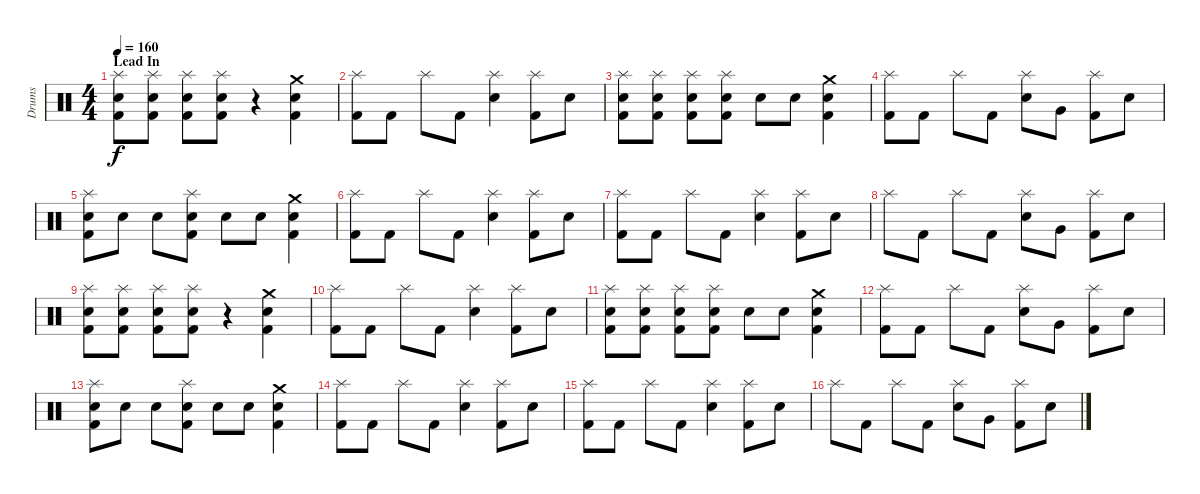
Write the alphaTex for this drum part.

\track ("Drums" "Drums") {instrument percussion}
\staff {score}
\articulation defaults
\ts (4 4)
\section ("" "Lead In")
\tempo 160
\clef neutral
\ks c
("Splash (hit)" "Electric Snare (hit)" "Kick (hit) 2").8{dy f} ("Splash (hit)" "Electric Snare (hit)" "Kick (hit) 2").8 ("Splash (hit)" "Electric Snare (hit)" "Kick (hit) 2").8 ("Splash (hit)" "Electric Snare (hit)" "Kick (hit) 2").8 r.4 ("Crash medium (hit)" "Electric Snare (hit)" "Kick (hit) 2").4 |
("Splash (hit)" "Kick (hit) 2").8 "Kick (hit) 2".8 "Splash (hit)".8 "Kick (hit) 2".8 ("Splash (hit)" "Electric Snare (hit)").4 ("Splash (hit)" "Kick (hit) 2").8 "Electric Snare (hit)".8 |
("Splash (hit)" "Electric Snare (hit)" "Kick (hit) 2").8 ("Splash (hit)" "Electric Snare (hit)" "Kick (hit) 2").8 ("Splash (hit)" "Electric Snare (hit)" "Kick (hit) 2").8 ("Splash (hit)" "Electric Snare (hit)" "Kick (hit) 2").8 "Electric Snare (hit)".8 "Electric Snare (hit)".8 ("Crash medium (hit)" "Electric Snare (hit)" "Kick (hit) 2").4 |
("Splash (hit)" "Kick (hit) 2").8 "Kick (hit) 2".8 "Splash (hit)".8 "Kick (hit) 2".8 ("Splash (hit)" "Electric Snare (hit)").8 "Very Low Tom (hit)".8 ("Splash (hit)" "Kick (hit) 2").8 "Electric Snare (hit)".8 |
("Splash (hit)" "Electric Snare (hit)" "Kick (hit) 2").8 "Electric Snare (hit)".8 "Electric Snare (hit)".8 ("Splash (hit)" "Electric Snare (hit)" "Kick (hit) 2").8 "Electric Snare (hit)".8 "Electric Snare (hit)".8 ("Crash medium (hit)" "Electric Snare (hit)" "Kick (hit) 2").4 |
("Splash (hit)" "Kick (hit) 2").8 "Kick (hit) 2".8 "Splash (hit)".8 "Kick (hit) 2".8 ("Splash (hit)" "Electric Snare (hit)").4 ("Splash (hit)" "Kick (hit) 2").8 "Electric Snare (hit)".8 |
("Splash (hit)" "Kick (hit) 2").8 "Kick (hit) 2".8 "Splash (hit)".8 "Kick (hit) 2".8 ("Splash (hit)" "Electric Snare (hit)").4 ("Splash (hit)" "Kick (hit) 2").8 "Electric Snare (hit)".8 |
"Splash (hit)".8 "Kick (hit) 2".8 "Splash (hit)".8 "Kick (hit) 2".8 ("Splash (hit)" "Electric Snare (hit)").8 "Very Low Tom (hit)".8 ("Splash (hit)" "Kick (hit) 2").8 "Electric Snare (hit)".8 |
("Splash (hit)" "Electric Snare (hit)" "Kick (hit) 2").8 ("Splash (hit)" "Electric Snare (hit)" "Kick (hit) 2").8 ("Splash (hit)" "Electric Snare (hit)" "Kick (hit) 2").8 ("Splash (hit)" "Electric Snare (hit)" "Kick (hit) 2").8 r.4 ("Crash medium (hit)" "Electric Snare (hit)" "Kick (hit) 2").4 |
("Splash (hit)" "Kick (hit) 2").8 "Kick (hit) 2".8 "Splash (hit)".8 "Kick (hit) 2".8 ("Splash (hit)" "Electric Snare (hit)").4 ("Splash (hit)" "Kick (hit) 2").8 "Electric Snare (hit)".8 |
("Splash (hit)" "Electric Snare (hit)" "Kick (hit) 2").8 ("Splash (hit)" "Electric Snare (hit)" "Kick (hit) 2").8 ("Splash (hit)" "Electric Snare (hit)" "Kick (hit) 2").8 ("Splash (hit)" "Electric Snare (hit)" "Kick (hit) 2").8 "Electric Snare (hit)".8 "Electric Snare (hit)".8 ("Crash medium (hit)" "Electric Snare (hit)" "Kick (hit) 2").4 |
("Splash (hit)" "Kick (hit) 2").8 "Kick (hit) 2".8 "Splash (hit)".8 "Kick (hit) 2".8 ("Splash (hit)" "Electric Snare (hit)").8 "Very Low Tom (hit)".8 ("Splash (hit)" "Kick (hit) 2").8 "Electric Snare (hit)".8 |
("Splash (hit)" "Electric Snare (hit)" "Kick (hit) 2").8 "Electric Snare (hit)".8 "Electric Snare (hit)".8 ("Splash (hit)" "Electric Snare (hit)" "Kick (hit) 2").8 "Electric Snare (hit)".8 "Electric Snare (hit)".8 ("Crash medium (hit)" "Electric Snare (hit)" "Kick (hit) 2").4 |
("Splash (hit)" "Kick (hit) 2").8 "Kick (hit) 2".8 "Splash (hit)".8 "Kick (hit) 2".8 ("Splash (hit)" "Electric Snare (hit)").4 ("Splash (hit)" "Kick (hit) 2").8 "Electric Snare (hit)".8 |
("Splash (hit)" "Kick (hit) 2").8 "Kick (hit) 2".8 "Splash (hit)".8 "Kick (hit) 2".8 ("Splash (hit)" "Electric Snare (hit)").4 ("Splash (hit)" "Kick (hit) 2").8 "Electric Snare (hit)".8 |
"Splash (hit)".8 "Kick (hit) 2".8 "Splash (hit)".8 "Kick (hit) 2".8 ("Splash (hit)" "Electric Snare (hit)").8 "Very Low Tom (hit)".8 ("Splash (hit)" "Kick (hit) 2").8 "Electric Snare (hit)".8
